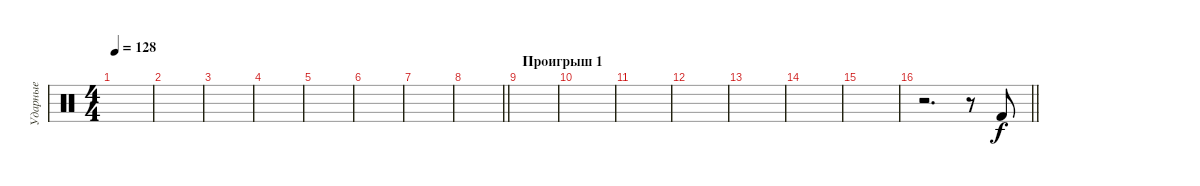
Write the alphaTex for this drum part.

\track ("Ударные" "Ударные") {instrument percussion}
\staff {score}
\articulation defaults
\ts (4 4)
\tempo 128
\clef neutral
\ks c
|
|
|
|
|
|
|
\barLineRight lightlight
|
\section ("" "Проигрыш 1")
|
|
|
|
|
|
|
\barLineRight lightlight
r.2{d volume 9} r.8 "Kick (hit) 2".8
